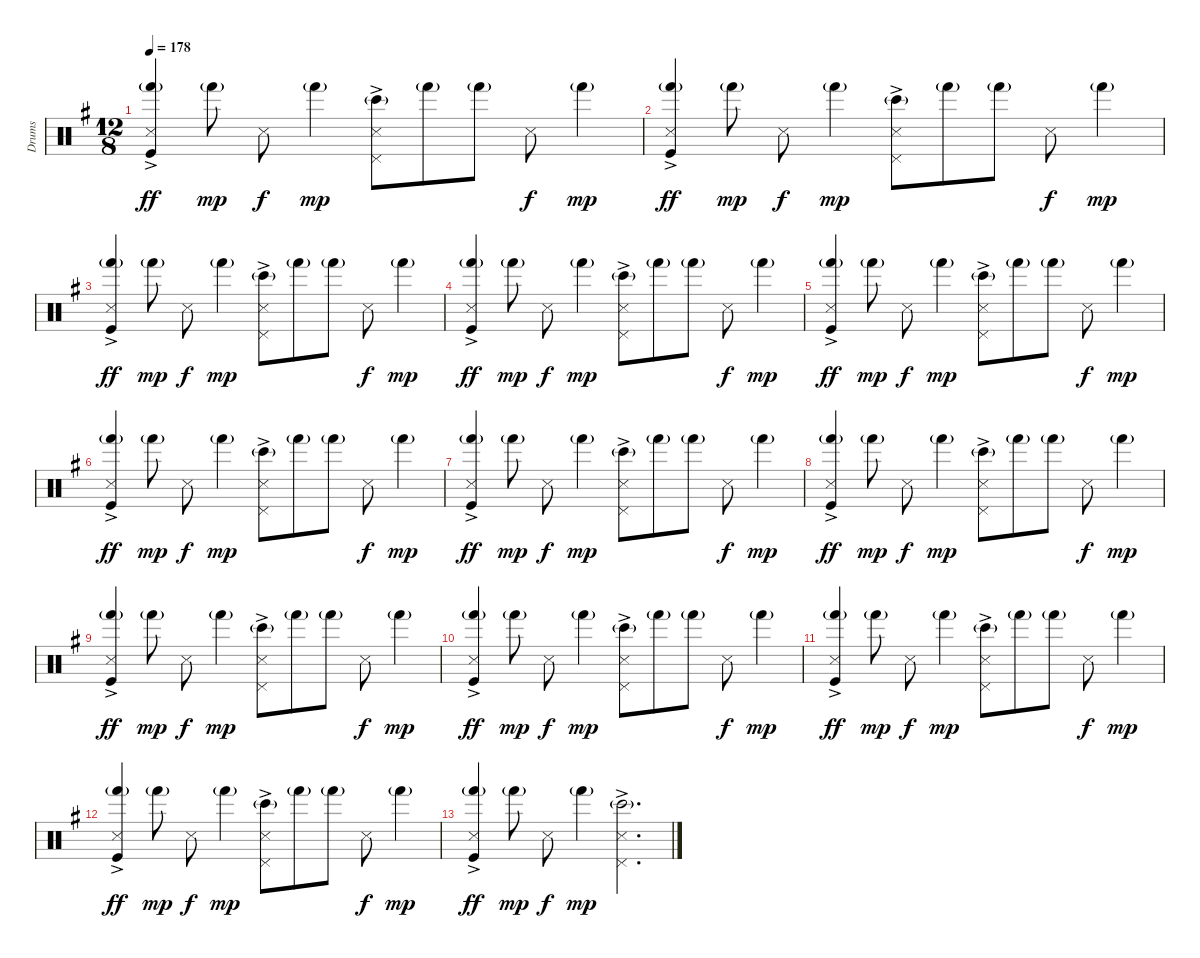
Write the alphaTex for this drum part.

\track ("Drums" "Drums") {instrument percussion}
\staff {score}
\articulation defaults
\ts (12 8)
\tempo 178
\clef neutral
\ks g
("Snare (side stick) 3" "Hand (hit)"{g} "Kick (hit)"{ac}).4{dy ff} "Hand (hit)"{g}.8{dy mp} "Snare (side stick) 3".8{dy f} "Hand (hit)"{g}.4{dy mp} ("Pedal Hi-Hat (hit)"{ac} "Snare (side stick) 3" "Bongo High (hit)"{g}).8 "Hand (hit)"{g}.8 "Hand (hit)"{g}.8 "Snare (side stick) 3".8{dy f} "Hand (hit)"{g}.4{dy mp} |
("Snare (side stick) 3" "Hand (hit)"{g} "Kick (hit)"{ac}).4{dy ff} "Hand (hit)"{g}.8{dy mp} "Snare (side stick) 3".8{dy f} "Hand (hit)"{g}.4{dy mp} ("Pedal Hi-Hat (hit)"{ac} "Snare (side stick) 3" "Bongo High (hit)"{g}).8 "Hand (hit)"{g}.8 "Hand (hit)"{g}.8 "Snare (side stick) 3".8{dy f} "Hand (hit)"{g}.4{dy mp} |
("Snare (side stick) 3" "Hand (hit)"{g} "Kick (hit)"{ac}).4{dy ff} "Hand (hit)"{g}.8{dy mp} "Snare (side stick) 3".8{dy f} "Hand (hit)"{g}.4{dy mp} ("Pedal Hi-Hat (hit)"{ac} "Snare (side stick) 3" "Bongo High (hit)"{g}).8 "Hand (hit)"{g}.8 "Hand (hit)"{g}.8 "Snare (side stick) 3".8{dy f} "Hand (hit)"{g}.4{dy mp} |
("Snare (side stick) 3" "Hand (hit)"{g} "Kick (hit)"{ac}).4{dy ff} "Hand (hit)"{g}.8{dy mp} "Snare (side stick) 3".8{dy f} "Hand (hit)"{g}.4{dy mp} ("Pedal Hi-Hat (hit)"{ac} "Snare (side stick) 3" "Bongo High (hit)"{g}).8 "Hand (hit)"{g}.8 "Hand (hit)"{g}.8 "Snare (side stick) 3".8{dy f} "Hand (hit)"{g}.4{dy mp} |
("Snare (side stick) 3" "Hand (hit)"{g} "Kick (hit)"{ac}).4{dy ff} "Hand (hit)"{g}.8{dy mp} "Snare (side stick) 3".8{dy f} "Hand (hit)"{g}.4{dy mp} ("Pedal Hi-Hat (hit)"{ac} "Snare (side stick) 3" "Bongo High (hit)"{g}).8 "Hand (hit)"{g}.8 "Hand (hit)"{g}.8 "Snare (side stick) 3".8{dy f} "Hand (hit)"{g}.4{dy mp} |
("Snare (side stick) 3" "Hand (hit)"{g} "Kick (hit)"{ac}).4{dy ff} "Hand (hit)"{g}.8{dy mp} "Snare (side stick) 3".8{dy f} "Hand (hit)"{g}.4{dy mp} ("Pedal Hi-Hat (hit)"{ac} "Snare (side stick) 3" "Bongo High (hit)"{g}).8 "Hand (hit)"{g}.8 "Hand (hit)"{g}.8 "Snare (side stick) 3".8{dy f} "Hand (hit)"{g}.4{dy mp} |
("Snare (side stick) 3" "Hand (hit)"{g} "Kick (hit)"{ac}).4{dy ff} "Hand (hit)"{g}.8{dy mp} "Snare (side stick) 3".8{dy f} "Hand (hit)"{g}.4{dy mp} ("Pedal Hi-Hat (hit)"{ac} "Snare (side stick) 3" "Bongo High (hit)"{g}).8 "Hand (hit)"{g}.8 "Hand (hit)"{g}.8 "Snare (side stick) 3".8{dy f} "Hand (hit)"{g}.4{dy mp} |
("Snare (side stick) 3" "Hand (hit)"{g} "Kick (hit)"{ac}).4{dy ff} "Hand (hit)"{g}.8{dy mp} "Snare (side stick) 3".8{dy f} "Hand (hit)"{g}.4{dy mp} ("Pedal Hi-Hat (hit)"{ac} "Snare (side stick) 3" "Bongo High (hit)"{g}).8 "Hand (hit)"{g}.8 "Hand (hit)"{g}.8 "Snare (side stick) 3".8{dy f} "Hand (hit)"{g}.4{dy mp} |
("Snare (side stick) 3" "Hand (hit)"{g} "Kick (hit)"{ac}).4{dy ff} "Hand (hit)"{g}.8{dy mp} "Snare (side stick) 3".8{dy f} "Hand (hit)"{g}.4{dy mp} ("Pedal Hi-Hat (hit)"{ac} "Snare (side stick) 3" "Bongo High (hit)"{g}).8 "Hand (hit)"{g}.8 "Hand (hit)"{g}.8 "Snare (side stick) 3".8{dy f} "Hand (hit)"{g}.4{dy mp} |
("Snare (side stick) 3" "Hand (hit)"{g} "Kick (hit)"{ac}).4{dy ff} "Hand (hit)"{g}.8{dy mp} "Snare (side stick) 3".8{dy f} "Hand (hit)"{g}.4{dy mp} ("Pedal Hi-Hat (hit)"{ac} "Snare (side stick) 3" "Bongo High (hit)"{g}).8 "Hand (hit)"{g}.8 "Hand (hit)"{g}.8 "Snare (side stick) 3".8{dy f} "Hand (hit)"{g}.4{dy mp} |
("Snare (side stick) 3" "Hand (hit)"{g} "Kick (hit)"{ac}).4{dy ff} "Hand (hit)"{g}.8{dy mp} "Snare (side stick) 3".8{dy f} "Hand (hit)"{g}.4{dy mp} ("Pedal Hi-Hat (hit)"{ac} "Snare (side stick) 3" "Bongo High (hit)"{g}).8 "Hand (hit)"{g}.8 "Hand (hit)"{g}.8 "Snare (side stick) 3".8{dy f} "Hand (hit)"{g}.4{dy mp} |
("Snare (side stick) 3" "Hand (hit)"{g} "Kick (hit)"{ac}).4{dy ff} "Hand (hit)"{g}.8{dy mp} "Snare (side stick) 3".8{dy f} "Hand (hit)"{g}.4{dy mp} ("Pedal Hi-Hat (hit)"{ac} "Snare (side stick) 3" "Bongo High (hit)"{g}).8 "Hand (hit)"{g}.8 "Hand (hit)"{g}.8 "Snare (side stick) 3".8{dy f} "Hand (hit)"{g}.4{dy mp} |
("Snare (side stick) 3" "Hand (hit)"{g} "Kick (hit)"{ac}).4{dy ff} "Hand (hit)"{g}.8{dy mp} "Snare (side stick) 3".8{dy f} "Hand (hit)"{g}.4{dy mp} ("Pedal Hi-Hat (hit)"{ac} "Snare (side stick) 3" "Bongo High (hit)"{g}).2{d}
